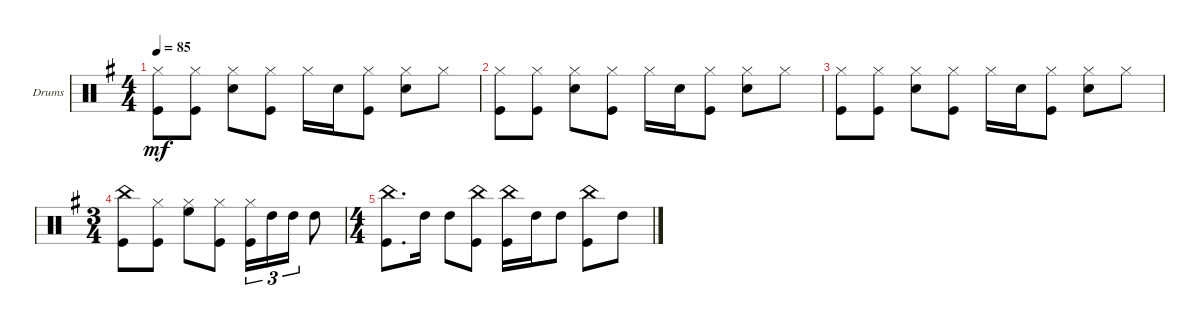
\defaultSystemsLayout 4
\bracketExtendMode groupsimilarinstruments
\firstSystemTrackNameOrientation horizontal
\otherSystemsTrackNameOrientation horizontal
\track ("Ian Paice" "Drums") {instrument percussion}
\staff {score}
\articulation defaults
\ts (4 4)
\tempo 85
\clef neutral
\ks g
("Hi-Hat (closed)" "Kick (hit)").8{dy mf} ("Hi-Hat (closed)" "Kick (hit)").8 ("Hi-Hat (closed)" "Snare (hit) 2").8 ("Hi-Hat (closed)" "Kick (hit)").8 "Hi-Hat (closed)".16 "Snare (hit) 2".16 ("Hi-Hat (closed)" "Kick (hit)").8 ("Hi-Hat (closed)" "Snare (hit) 2").8 "Hi-Hat (closed)".8 |
("Hi-Hat (closed)" "Kick (hit)").8 ("Hi-Hat (closed)" "Kick (hit)").8 ("Hi-Hat (closed)" "Snare (hit) 2").8 ("Hi-Hat (closed)" "Kick (hit)").8 "Hi-Hat (closed)".16 "Snare (hit) 2".16 ("Hi-Hat (closed)" "Kick (hit)").8 ("Hi-Hat (closed)" "Snare (hit) 2").8 "Hi-Hat (closed)".8 |
("Hi-Hat (closed)" "Kick (hit)").8 ("Hi-Hat (closed)" "Kick (hit)").8 ("Hi-Hat (closed)" "Snare (hit) 2").8 ("Hi-Hat (closed)" "Kick (hit)").8 "Hi-Hat (closed)".16 "Snare (hit) 2".16 ("Hi-Hat (closed)" "Kick (hit)").8 ("Hi-Hat (closed)" "Snare (hit) 2").8 "Hi-Hat (closed)".8 |
\ts (3 4)
("Kick (hit)" "China (hit)").8 ("Hi-Hat (closed)" "Kick (hit)").8 ("Hi-Hat (closed)" "High Floor Tom (hit)").8 ("Hi-Hat (closed)" "Kick (hit)").8 ("Kick (hit)" "Hi-Hat (closed)").16{tu (3 2)} "High Tom (hit)".16{tu (3 2)} "High Tom (hit)".16{tu (3 2)} "High Tom (hit)".8 |
\ts (4 4)
("Kick (hit)" "China (hit)").8{d} "High Tom (hit)".16 "High Tom (hit)".8 ("China (hit)" "Kick (hit)").8 ("Kick (hit)" "China (hit)").16 "High Tom (hit)".16 "High Tom (hit)".8 ("China (hit)" "Kick (hit)").8 "High Tom (hit)".8
